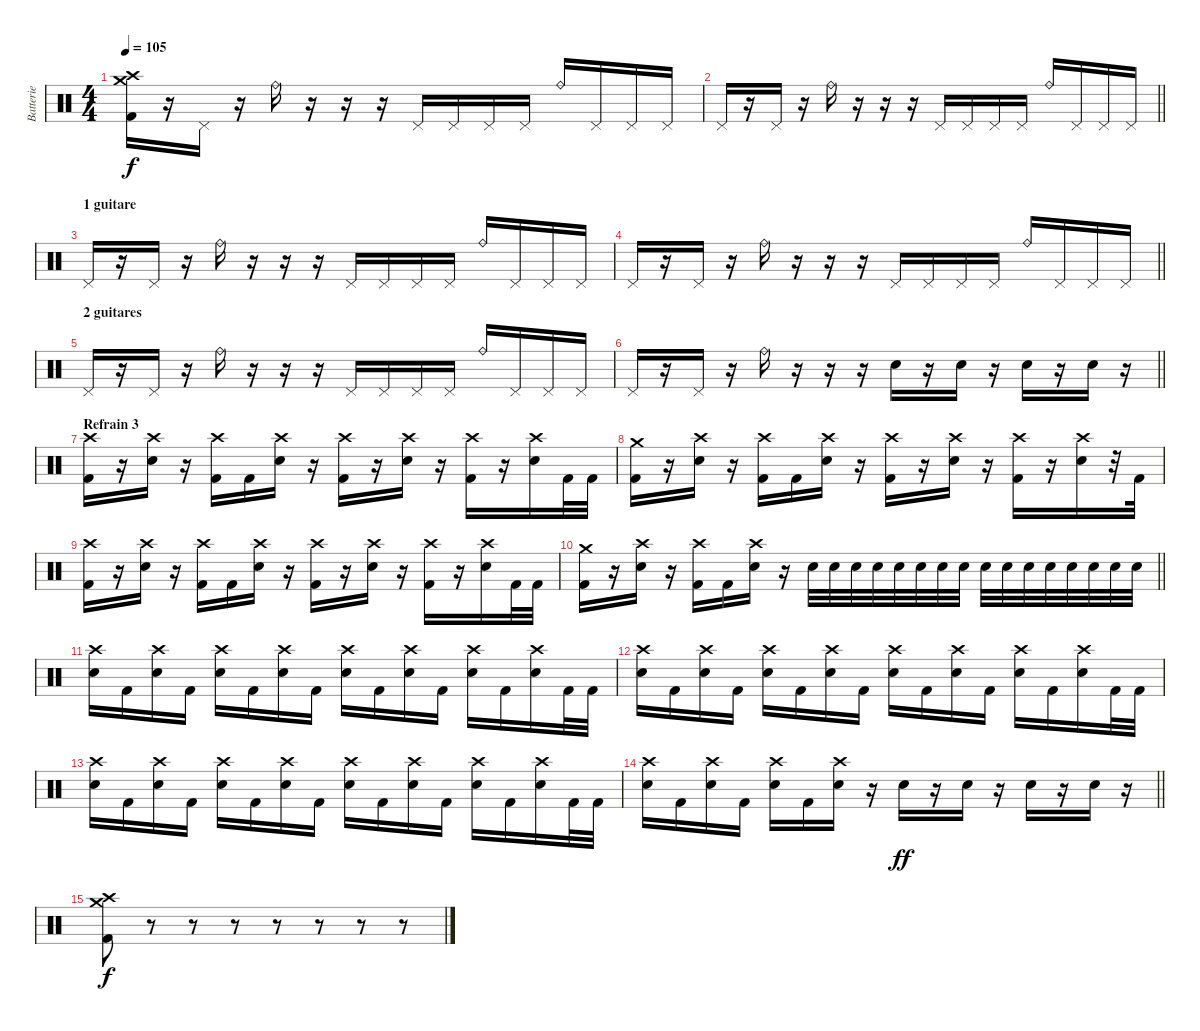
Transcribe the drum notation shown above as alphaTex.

\track ("Batterie" "Batterie") {instrument percussion}
\staff {score}
\articulation defaults
\ts (4 4)
\tempo 105
\clef neutral
\ks c
("Kick (hit) 2" "Crash medium (hit)" "Crash high (hit)").16{dy f} r.16 "Pedal Hi-Hat (hit)".16 r.16 "Ride (bell)".16 r.16 r.16 r.16 "Pedal Hi-Hat (hit)".16 "Pedal Hi-Hat (hit)".16 "Pedal Hi-Hat (hit)".16 "Pedal Hi-Hat (hit)".16 "Ride (bell)".16 "Pedal Hi-Hat (hit)".16 "Pedal Hi-Hat (hit)".16 "Pedal Hi-Hat (hit)".16 |
\barLineRight lightlight "Pedal Hi-Hat (hit)".16
r.16 "Pedal Hi-Hat (hit)".16 r.16 "Ride (bell)".16 r.16 r.16 r.16 "Pedal Hi-Hat (hit)".16 "Pedal Hi-Hat (hit)".16 "Pedal Hi-Hat (hit)".16 "Pedal Hi-Hat (hit)".16 "Ride (bell)".16 "Pedal Hi-Hat (hit)".16 "Pedal Hi-Hat (hit)".16 "Pedal Hi-Hat (hit)".16 |
\section ("" "1 guitare")
"Pedal Hi-Hat (hit)".16 r.16 "Pedal Hi-Hat (hit)".16 r.16 "Ride (bell)".16 r.16 r.16 r.16 "Pedal Hi-Hat (hit)".16 "Pedal Hi-Hat (hit)".16 "Pedal Hi-Hat (hit)".16 "Pedal Hi-Hat (hit)".16 "Ride (bell)".16 "Pedal Hi-Hat (hit)".16 "Pedal Hi-Hat (hit)".16 "Pedal Hi-Hat (hit)".16 |
\barLineRight lightlight "Pedal Hi-Hat (hit)".16
r.16 "Pedal Hi-Hat (hit)".16 r.16 "Ride (bell)".16 r.16 r.16 r.16 "Pedal Hi-Hat (hit)".16 "Pedal Hi-Hat (hit)".16 "Pedal Hi-Hat (hit)".16 "Pedal Hi-Hat (hit)".16 "Ride (bell)".16 "Pedal Hi-Hat (hit)".16 "Pedal Hi-Hat (hit)".16 "Pedal Hi-Hat (hit)".16 |
\section ("" "2 guitares")
"Pedal Hi-Hat (hit)".16 r.16 "Pedal Hi-Hat (hit)".16 r.16 "Ride (bell)".16 r.16 r.16 r.16 "Pedal Hi-Hat (hit)".16 "Pedal Hi-Hat (hit)".16 "Pedal Hi-Hat (hit)".16 "Pedal Hi-Hat (hit)".16 "Ride (bell)".16 "Pedal Hi-Hat (hit)".16 "Pedal Hi-Hat (hit)".16 "Pedal Hi-Hat (hit)".16 |
\barLineRight lightlight "Pedal Hi-Hat (hit)".16
r.16 "Pedal Hi-Hat (hit)".16 r.16 "Ride (bell)".16 r.16 r.16 r.16 "Electric Snare (hit)".16 r.16 "Electric Snare (hit)".16 r.16 "Electric Snare (hit)".16 r.16 "Electric Snare (hit)".16 r.16 |
\section ("" "Refrain 3")
("Kick (hit) 2" "Crash high (hit)").16 r.16 ("Electric Snare (hit)" "Crash high (hit)").16 r.16 ("Kick (hit) 2" "Crash high (hit)").16 "Kick (hit) 2".16 ("Electric Snare (hit)" "Crash high (hit)").16 r.16 ("Kick (hit) 2" "Crash high (hit)").16 r.16 ("Electric Snare (hit)" "Crash high (hit)").16 r.16 ("Kick (hit) 2" "Crash high (hit)").16 r.16 ("Electric Snare (hit)" "Crash high (hit)").16 "Kick (hit) 2".32 "Kick (hit) 2".32 |
("Kick (hit) 2" "Crash medium (hit)").16 r.16 ("Electric Snare (hit)" "Crash high (hit)").16 r.16 ("Kick (hit) 2" "Crash high (hit)").16 "Kick (hit) 2".16 ("Electric Snare (hit)" "Crash high (hit)").16 r.16 ("Kick (hit) 2" "Crash high (hit)").16 r.16 ("Electric Snare (hit)" "Crash high (hit)").16 r.16 ("Kick (hit) 2" "Crash high (hit)").16 r.16 ("Electric Snare (hit)" "Crash high (hit)").16 r.32 "Kick (hit) 2".32 |
("Kick (hit) 2" "Crash high (hit)").16 r.16 ("Electric Snare (hit)" "Crash high (hit)").16 r.16 ("Kick (hit) 2" "Crash high (hit)").16 "Kick (hit) 2".16 ("Electric Snare (hit)" "Crash high (hit)").16 r.16 ("Kick (hit) 2" "Crash high (hit)").16 r.16 ("Electric Snare (hit)" "Crash high (hit)").16 r.16 ("Kick (hit) 2" "Crash high (hit)").16 r.16 ("Electric Snare (hit)" "Crash high (hit)").16 "Kick (hit) 2".32 "Kick (hit) 2".32 |
\barLineRight lightlight
("Kick (hit) 2" "Crash medium (hit)").16 r.16 ("Electric Snare (hit)" "Crash high (hit)").16 r.16 ("Kick (hit) 2" "Crash high (hit)").16 "Kick (hit) 2".16 ("Electric Snare (hit)" "Crash high (hit)").16 r.16 "Electric Snare (hit)".32 "Electric Snare (hit)".32 "Electric Snare (hit)".32 "Electric Snare (hit)".32 "Electric Snare (hit)".32 "Electric Snare (hit)".32 "Electric Snare (hit)".32 "Electric Snare (hit)".32 "Electric Snare (hit)".32 "Electric Snare (hit)".32 "Electric Snare (hit)".32 "Electric Snare (hit)".32 "Electric Snare (hit)".32 "Electric Snare (hit)".32 "Electric Snare (hit)".32 "Electric Snare (hit)".32 |
("Electric Snare (hit)" "Crash high (hit)").16 "Kick (hit) 2".16 ("Electric Snare (hit)" "Crash high (hit)").16 "Kick (hit) 2".16 ("Electric Snare (hit)" "Crash high (hit)").16 "Kick (hit) 2".16 ("Electric Snare (hit)" "Crash high (hit)").16 "Kick (hit) 2".16 ("Electric Snare (hit)" "Crash high (hit)").16 "Kick (hit) 2".16 ("Electric Snare (hit)" "Crash high (hit)").16 "Kick (hit) 2".16 ("Electric Snare (hit)" "Crash high (hit)").16 "Kick (hit) 2".16 ("Electric Snare (hit)" "Crash high (hit)").16 "Kick (hit) 2".32 "Kick (hit) 2".32 |
("Electric Snare (hit)" "Crash high (hit)").16 "Kick (hit) 2".16 ("Electric Snare (hit)" "Crash high (hit)").16 "Kick (hit) 2".16 ("Electric Snare (hit)" "Crash high (hit)").16 "Kick (hit) 2".16 ("Electric Snare (hit)" "Crash high (hit)").16 "Kick (hit) 2".16 ("Electric Snare (hit)" "Crash high (hit)").16 "Kick (hit) 2".16 ("Electric Snare (hit)" "Crash high (hit)").16 "Kick (hit) 2".16 ("Electric Snare (hit)" "Crash high (hit)").16 "Kick (hit) 2".16 ("Electric Snare (hit)" "Crash high (hit)").16 "Kick (hit) 2".32 "Kick (hit) 2".32 |
("Electric Snare (hit)" "Crash high (hit)").16 "Kick (hit) 2".16 ("Electric Snare (hit)" "Crash high (hit)").16 "Kick (hit) 2".16 ("Electric Snare (hit)" "Crash high (hit)").16 "Kick (hit) 2".16 ("Electric Snare (hit)" "Crash high (hit)").16 "Kick (hit) 2".16 ("Electric Snare (hit)" "Crash high (hit)").16 "Kick (hit) 2".16 ("Electric Snare (hit)" "Crash high (hit)").16 "Kick (hit) 2".16 ("Electric Snare (hit)" "Crash high (hit)").16 "Kick (hit) 2".16 ("Electric Snare (hit)" "Crash high (hit)").16 "Kick (hit) 2".32 "Kick (hit) 2".32 |
\barLineRight lightlight
("Electric Snare (hit)" "Crash high (hit)").16 "Kick (hit) 2".16 ("Electric Snare (hit)" "Crash high (hit)").16 "Kick (hit) 2".16 ("Electric Snare (hit)" "Crash high (hit)").16 "Kick (hit) 2".16 ("Electric Snare (hit)" "Crash high (hit)").16 r.16 "Electric Snare (hit)".16{dy ff} r.16 "Electric Snare (hit)".16 r.16 "Electric Snare (hit)".16 r.16 "Electric Snare (hit)".16 r.16 |
("Kick (hit) 2" "Crash medium (hit)" "Crash high (hit)").8{dy f} r.8 r.8 r.8 r.8 r.8 r.8 r.8
